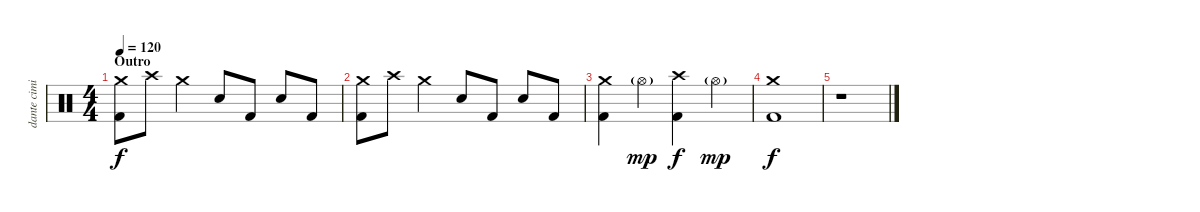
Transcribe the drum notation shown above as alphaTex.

\track ("dante cimino" "dante cimi") {instrument percussion}
\staff {score}
\articulation defaults
\ts (4 4)
\section ("" "Outro")
\tempo 120
\clef neutral
\ks c
("Crash medium (hit)" "Kick (hit) 2").8{dy f} "Crash high (hit)".8 "Crash medium (hit)".4 "Electric Snare (hit)".8 "Kick (hit) 2".8 "Electric Snare (hit)".8 "Kick (hit) 2".8 |
("Crash medium (hit)" "Kick (hit) 2").8 "Crash high (hit)".8 "Crash medium (hit)".4 "Electric Snare (hit)".8 "Kick (hit) 2".8 "Electric Snare (hit)".8 "Kick (hit) 2".8 |
("Crash medium (hit)" "Kick (hit) 2").4 "Hi-Hat (open)"{g}.4{dy mp} ("Crash high (hit)" "Kick (hit) 2").4{dy f} "Hi-Hat (open)"{g}.4{dy mp} |
("Crash medium (hit)" "Kick (hit) 2").1{dy f} |
r.1
